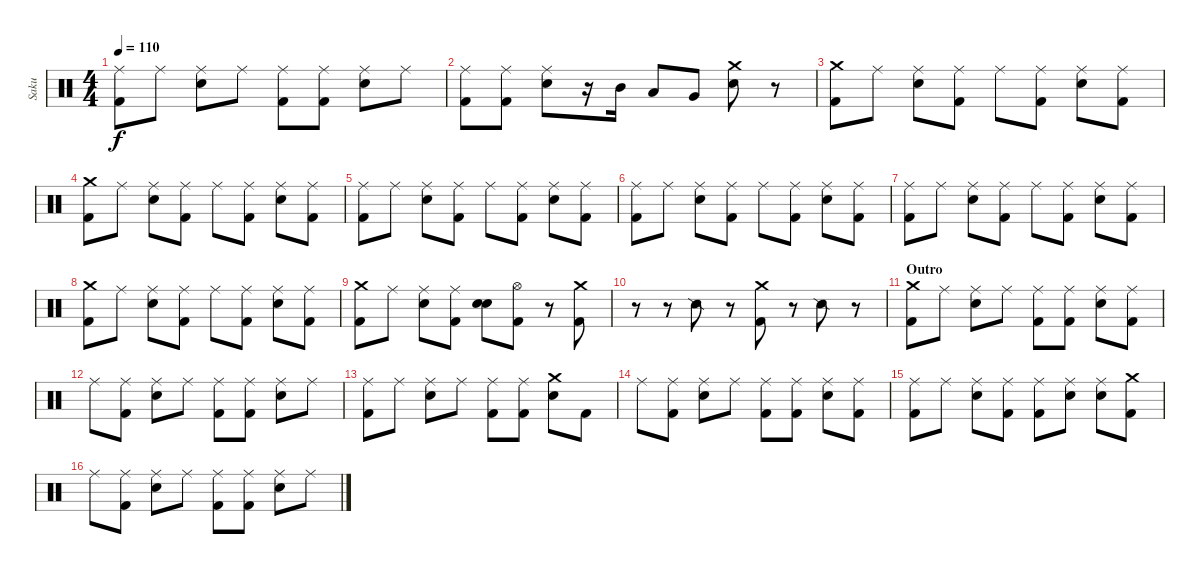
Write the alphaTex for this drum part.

\track ("Saku" "Saku") {instrument percussion}
\staff {score}
\articulation defaults
\ts (4 4)
\tempo 110
\clef neutral
\ks c
("Ride (middle)" "Kick (hit) 2").8{dy f} "Ride (middle)".8 ("Ride (middle)" "Electric Snare (hit)").8 "Ride (middle)".8 ("Ride (middle)" "Kick (hit) 2").8 ("Ride (middle)" "Kick (hit) 2").8 ("Ride (middle)" "Electric Snare (hit)").8 "Ride (middle)".8 |
("Ride (middle)" "Kick (hit) 2").8 ("Ride (middle)" "Kick (hit) 2").8 ("Ride (middle)" "Electric Snare (hit)").8 r.16 "Mid Tom (hit)".16 "Low Tom (hit)".8 "Very Low Tom (hit)".8 ("Crash medium (hit)" "Electric Snare (hit)").8 r.8 |
("Crash medium (hit)" "Kick (hit) 2").8 "Ride (middle)".8 ("Ride (middle)" "Electric Snare (hit)").8 ("Ride (middle)" "Kick (hit) 2").8 "Ride (middle)".8 ("Ride (middle)" "Kick (hit) 2").8 ("Ride (middle)" "Electric Snare (hit)").8 ("Ride (middle)" "Kick (hit) 2").8 |
("Crash medium (hit)" "Kick (hit) 2").8 "Ride (middle)".8 ("Ride (middle)" "Electric Snare (hit)").8 ("Ride (middle)" "Kick (hit) 2").8 "Ride (middle)".8 ("Ride (middle)" "Kick (hit) 2").8 ("Ride (middle)" "Electric Snare (hit)").8 ("Ride (middle)" "Kick (hit) 2").8 |
("Ride (middle)" "Kick (hit) 2").8 "Ride (middle)".8 ("Ride (middle)" "Electric Snare (hit)").8 ("Ride (middle)" "Kick (hit) 2").8 "Ride (middle)".8 ("Ride (middle)" "Kick (hit) 2").8 ("Ride (middle)" "Electric Snare (hit)").8 ("Ride (middle)" "Kick (hit) 2").8 |
("Ride (middle)" "Kick (hit) 2").8 "Ride (middle)".8 ("Ride (middle)" "Electric Snare (hit)").8 ("Ride (middle)" "Kick (hit) 2").8 "Ride (middle)".8 ("Ride (middle)" "Kick (hit) 2").8 ("Ride (middle)" "Electric Snare (hit)").8 ("Ride (middle)" "Kick (hit) 2").8 |
("Ride (middle)" "Kick (hit) 2").8 "Ride (middle)".8 ("Ride (middle)" "Electric Snare (hit)").8 ("Ride (middle)" "Kick (hit) 2").8 "Ride (middle)".8 ("Ride (middle)" "Kick (hit) 2").8 ("Ride (middle)" "Electric Snare (hit)").8 ("Ride (middle)" "Kick (hit) 2").8 |
("Crash medium (hit)" "Kick (hit) 2").8 "Ride (middle)".8 ("Ride (middle)" "Electric Snare (hit)").8 ("Ride (middle)" "Kick (hit) 2").8 "Ride (middle)".8 ("Ride (middle)" "Kick (hit) 2").8 ("Ride (middle)" "Electric Snare (hit)").8 ("Ride (middle)" "Kick (hit) 2").8 |
("Crash medium (hit)" "Kick (hit) 2").8 "Ride (middle)".8 ("Ride (middle)" "Electric Snare (hit)").8 ("Ride (middle)" "Kick (hit) 2").8 ("Electric Snare (hit)" "Electric Snare (hit)").8{bu 60} ("Hi-Hat (open)" "Kick (hit) 2").8 r.8 ("Crash medium (hit)" "Kick (hit) 2").8 |
r.8 r.8 "Snare (side stick) 2".8 r.8 ("Crash medium (hit)" "Kick (hit) 2").8 r.8 "Snare (side stick) 2".8 r.8 |
\section ("" "Outro")
("Crash medium (hit)" "Kick (hit) 2").8 "Ride (middle)".8 ("Ride (middle)" "Electric Snare (hit)").8 "Ride (middle)".8 ("Ride (middle)" "Kick (hit) 2").8 ("Ride (middle)" "Kick (hit) 2").8 ("Ride (middle)" "Electric Snare (hit)").8 ("Ride (middle)" "Kick (hit) 2").8 |
"Ride (middle)".8 ("Ride (middle)" "Kick (hit) 2").8 ("Ride (middle)" "Electric Snare (hit)").8 "Ride (middle)".8 ("Ride (middle)" "Kick (hit) 2").8 ("Ride (middle)" "Kick (hit) 2").8 ("Ride (middle)" "Electric Snare (hit)").8 "Ride (middle)".8 |
("Ride (middle)" "Kick (hit) 2").8 "Ride (middle)".8 ("Ride (middle)" "Electric Snare (hit)").8 "Ride (middle)".8 ("Ride (middle)" "Kick (hit) 2").8 ("Ride (middle)" "Kick (hit) 2").8 ("Crash medium (hit)" "Electric Snare (hit)").8 "Kick (hit) 2".8 |
"Ride (middle)".8 ("Ride (middle)" "Kick (hit) 2").8 ("Ride (middle)" "Electric Snare (hit)").8 "Ride (middle)".8 ("Ride (middle)" "Kick (hit) 2").8 ("Ride (middle)" "Kick (hit) 2").8 ("Ride (middle)" "Electric Snare (hit)").8 ("Ride (middle)" "Kick (hit) 2").8 |
("Ride (middle)" "Kick (hit) 2").8 "Ride (middle)".8 ("Ride (middle)" "Electric Snare (hit)").8 ("Ride (middle)" "Kick (hit) 2").8 ("Ride (middle)" "Kick (hit) 2").8 ("Ride (middle)" "Electric Snare (hit)").8 ("Ride (middle)" "Electric Snare (hit)").8 ("Crash medium (hit)" "Kick (hit) 2").8 |
"Ride (middle)".8 ("Ride (middle)" "Kick (hit) 2").8 ("Ride (middle)" "Electric Snare (hit)").8 "Ride (middle)".8 ("Ride (middle)" "Kick (hit) 2").8 ("Ride (middle)" "Kick (hit) 2").8 ("Ride (middle)" "Electric Snare (hit)").8 "Ride (middle)".8
